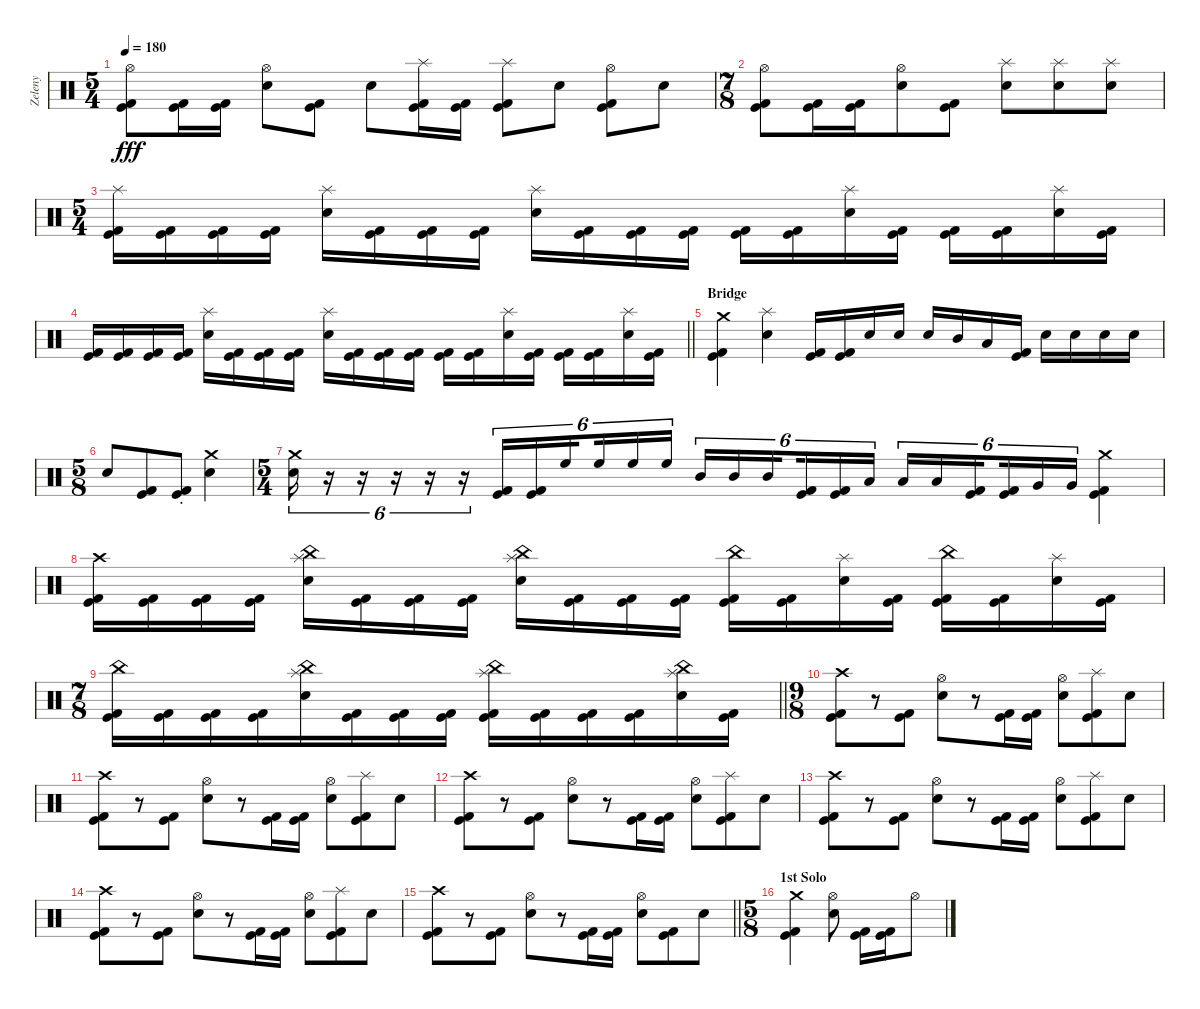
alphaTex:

\track ("Zeleny" "Zeleny") {instrument percussion}
\staff {score}
\articulation defaults
\ts (5 4)
\tempo 180
\clef neutral
\ks c
("Hi-Hat (open)" "Kick (hit)" "Kick (hit) 2").8{dy fff} ("Kick (hit)" "Kick (hit) 2").16 ("Kick (hit)" "Kick (hit) 2").16 ("Hi-Hat (open)" "Snare (hit) 2").8 ("Kick (hit)" "Kick (hit) 2").8 "Snare (hit) 2".8 ("Splash (hit)" "Kick (hit)" "Kick (hit) 2").16 ("Kick (hit)" "Kick (hit) 2").16 ("Splash (hit)" "Kick (hit)" "Kick (hit) 2").8 "Snare (hit) 2".8 ("Hi-Hat (open)" "Kick (hit)" "Kick (hit) 2").8 "Snare (hit) 2".8 |
\ts (7 8)
("Hi-Hat (open)" "Kick (hit)" "Kick (hit) 2").8 ("Kick (hit)" "Kick (hit) 2").16 ("Kick (hit)" "Kick (hit) 2").16 ("Hi-Hat (open)" "Snare (hit) 2").8 ("Kick (hit)" "Kick (hit) 2").8 ("Splash (hit)" "Snare (hit) 2").8 ("Splash (hit)" "Snare (hit) 2").8 ("Splash (hit)" "Snare (hit) 2").8 |
\ts (5 4)
("Splash (hit)" "Kick (hit)" "Kick (hit) 2").16 ("Kick (hit)" "Kick (hit) 2").16 ("Kick (hit)" "Kick (hit) 2").16 ("Kick (hit)" "Kick (hit) 2").16 ("Splash (hit)" "Snare (hit) 2").16 ("Kick (hit)" "Kick (hit) 2").16 ("Kick (hit)" "Kick (hit) 2").16 ("Kick (hit)" "Kick (hit) 2").16 ("Splash (hit)" "Snare (hit) 2").16 ("Kick (hit)" "Kick (hit) 2").16 ("Kick (hit)" "Kick (hit) 2").16 ("Kick (hit)" "Kick (hit) 2").16 ("Kick (hit)" "Kick (hit) 2").16 ("Kick (hit)" "Kick (hit) 2").16 ("Splash (hit)" "Snare (hit) 2").16 ("Kick (hit)" "Kick (hit) 2").16 ("Kick (hit)" "Kick (hit) 2").16 ("Kick (hit)" "Kick (hit) 2").16 ("Splash (hit)" "Snare (hit) 2").16 ("Kick (hit)" "Kick (hit) 2").16 |
\barLineRight lightlight
("Kick (hit)" "Kick (hit) 2").16 ("Kick (hit)" "Kick (hit) 2").16 ("Kick (hit)" "Kick (hit) 2").16 ("Kick (hit)" "Kick (hit) 2").16 ("Splash (hit)" "Snare (hit) 2").16 ("Kick (hit)" "Kick (hit) 2").16 ("Kick (hit)" "Kick (hit) 2").16 ("Kick (hit)" "Kick (hit) 2").16 ("Splash (hit)" "Snare (hit) 2").16 ("Kick (hit)" "Kick (hit) 2").16 ("Kick (hit)" "Kick (hit) 2").16 ("Kick (hit)" "Kick (hit) 2").16 ("Kick (hit)" "Kick (hit) 2").16 ("Kick (hit)" "Kick (hit) 2").16 ("Splash (hit)" "Snare (hit) 2").16 ("Kick (hit)" "Kick (hit) 2").16 ("Kick (hit)" "Kick (hit) 2").16 ("Kick (hit)" "Kick (hit) 2").16 ("Splash (hit)" "Snare (hit) 2").16 ("Kick (hit)" "Kick (hit) 2").16 |
\section ("" "Bridge")
("Crash medium (hit)" "Kick (hit)" "Kick (hit) 2").4 ("Splash (hit)" "Snare (hit) 2").4 ("Kick (hit)" "Kick (hit) 2").16 ("Kick (hit)" "Kick (hit) 2").16 "Snare (hit) 2".16 "Snare (hit) 2".16 "Snare (hit) 2".16 "Mid Tom (hit)".16 "Low Tom (hit)".16 ("Kick (hit)" "Kick (hit) 2").16 "Snare (hit) 2".16 "Snare (hit) 2".16 "Snare (hit) 2".16 "Snare (hit) 2".16 |
\ts (5 8)
"Snare (hit) 2".8 ("Kick (hit)" "Kick (hit) 2").8 ("Kick (hit)" "Kick (hit) 2"{st}).8 ("Crash medium (hit)" "Snare (hit) 2").4 |
\ts (5 4)
("Crash medium (hit)" "Snare (hit) 2").16{tu (6 4)} r.16{tu (6 4)} r.16{tu (6 4)} r.16{tu (6 4)} r.16{tu (6 4)} r.16{tu (6 4)} ("Kick (hit)" "Kick (hit) 2").16{tu (6 4)} ("Kick (hit)" "Kick (hit) 2").16{tu (6 4)} "High Floor Tom (hit)".16{tu (6 4) beam splitsecondary} "High Floor Tom (hit)".16{tu (6 4)} "High Floor Tom (hit)".16{tu (6 4)} "High Floor Tom (hit)".16{tu (6 4)} "Mid Tom (hit)".16{tu (6 4)} "Mid Tom (hit)".16{tu (6 4)} "Mid Tom (hit)".16{tu (6 4) beam splitsecondary} ("Kick (hit)" "Kick (hit) 2").16{tu (6 4)} ("Kick (hit)" "Kick (hit) 2").16{tu (6 4)} "Low Tom (hit)".16{tu (6 4)} "Low Tom (hit)".16{tu (6 4)} "Low Tom (hit)".16{tu (6 4)} ("Kick (hit)" "Kick (hit) 2").16{tu (6 4) beam splitsecondary} ("Kick (hit)" "Kick (hit) 2").16{tu (6 4)} "Very Low Tom (hit)".16{tu (6 4)} "Very Low Tom (hit)".16{tu (6 4)} ("Crash medium (hit)" "Kick (hit)" "Kick (hit) 2").4 |
("Crash high (hit)" "Kick (hit)" "Kick (hit) 2").16 ("Kick (hit)" "Kick (hit) 2").16 ("Kick (hit)" "Kick (hit) 2").16 ("Kick (hit)" "Kick (hit) 2").16 ("China (hit)" "Splash (hit)" "Snare (hit) 2").16 ("Kick (hit)" "Kick (hit) 2").16 ("Kick (hit)" "Kick (hit) 2").16 ("Kick (hit)" "Kick (hit) 2").16 ("China (hit)" "Splash (hit)" "Snare (hit) 2").16 ("Kick (hit)" "Kick (hit) 2").16 ("Kick (hit)" "Kick (hit) 2").16 ("Kick (hit)" "Kick (hit) 2").16 ("China (hit)" "Kick (hit)" "Kick (hit) 2").16 ("Kick (hit)" "Kick (hit) 2").16 ("Splash (hit)" "Snare (hit) 2").16 ("Kick (hit)" "Kick (hit) 2").16 ("China (hit)" "Kick (hit)" "Kick (hit) 2").16 ("Kick (hit)" "Kick (hit) 2").16 ("Splash (hit)" "Snare (hit) 2").16 ("Kick (hit)" "Kick (hit) 2").16 |
\ts (7 8)
\barLineRight lightlight
("China (hit)" "Kick (hit)" "Kick (hit) 2").16 ("Kick (hit)" "Kick (hit) 2").16 ("Kick (hit)" "Kick (hit) 2").16 ("Kick (hit)" "Kick (hit) 2").16 ("China (hit)" "Splash (hit)" "Snare (hit) 2").16 ("Kick (hit)" "Kick (hit) 2").16 ("Kick (hit)" "Kick (hit) 2").16 ("Kick (hit)" "Kick (hit) 2").16 ("China (hit)" "Splash (hit)" "Kick (hit)" "Kick (hit) 2").16 ("Kick (hit)" "Kick (hit) 2").16 ("Kick (hit)" "Kick (hit) 2").16 ("Kick (hit)" "Kick (hit) 2").16 ("China (hit)" "Splash (hit)" "Snare (hit) 2").16 ("Kick (hit)" "Kick (hit) 2").16 |
\ts (9 8)
\section ("" "")
("Crash high (hit)" "Kick (hit)" "Kick (hit) 2").8 r.8 ("Kick (hit)" "Kick (hit) 2").8 ("Hi-Hat (open)" "Snare (hit) 2").8 r.8 ("Kick (hit)" "Kick (hit) 2").16 ("Kick (hit)" "Kick (hit) 2").16 ("Hi-Hat (open)" "Snare (hit) 2").8 ("Splash (hit)" "Kick (hit)" "Kick (hit) 2").8 "Snare (hit) 2".8 |
("Crash high (hit)" "Kick (hit)" "Kick (hit) 2").8 r.8 ("Kick (hit)" "Kick (hit) 2").8 ("Hi-Hat (open)" "Snare (hit) 2").8 r.8 ("Kick (hit)" "Kick (hit) 2").16 ("Kick (hit)" "Kick (hit) 2").16 ("Hi-Hat (open)" "Snare (hit) 2").8 ("Splash (hit)" "Kick (hit)" "Kick (hit) 2").8 "Snare (hit) 2".8 |
("Crash high (hit)" "Kick (hit)" "Kick (hit) 2").8 r.8 ("Kick (hit)" "Kick (hit) 2").8 ("Hi-Hat (open)" "Snare (hit) 2").8 r.8 ("Kick (hit)" "Kick (hit) 2").16 ("Kick (hit)" "Kick (hit) 2").16 ("Hi-Hat (open)" "Snare (hit) 2").8 ("Splash (hit)" "Kick (hit)" "Kick (hit) 2").8 "Snare (hit) 2".8 |
("Crash high (hit)" "Kick (hit)" "Kick (hit) 2").8 r.8 ("Kick (hit)" "Kick (hit) 2").8 ("Hi-Hat (open)" "Snare (hit) 2").8 r.8 ("Kick (hit)" "Kick (hit) 2").16 ("Kick (hit)" "Kick (hit) 2").16 ("Hi-Hat (open)" "Snare (hit) 2").8 ("Splash (hit)" "Kick (hit)" "Kick (hit) 2").8 "Snare (hit) 2".8 |
("Crash high (hit)" "Kick (hit)" "Kick (hit) 2").8 r.8 ("Kick (hit)" "Kick (hit) 2").8 ("Hi-Hat (open)" "Snare (hit) 2").8 r.8 ("Kick (hit)" "Kick (hit) 2").16 ("Kick (hit)" "Kick (hit) 2").16 ("Hi-Hat (open)" "Snare (hit) 2").8 ("Splash (hit)" "Kick (hit)" "Kick (hit) 2").8 "Snare (hit) 2".8 |
\barLineRight lightlight
("Crash high (hit)" "Kick (hit)" "Kick (hit) 2").8 r.8 ("Kick (hit)" "Kick (hit) 2").8 ("Hi-Hat (open)" "Snare (hit) 2").8 r.8 ("Kick (hit)" "Kick (hit) 2").16 ("Kick (hit)" "Kick (hit) 2").16 ("Hi-Hat (open)" "Snare (hit) 2").8 ("Kick (hit)" "Kick (hit) 2").8 "Snare (hit) 2".8 |
\ts (5 8)
\section ("" "1st Solo")
("Crash medium (hit)" "Kick (hit)" "Kick (hit) 2").4 ("Hi-Hat (open)" "Snare (hit) 2").8 ("Kick (hit)" "Kick (hit) 2").16 ("Kick (hit)" "Kick (hit) 2").16 "Hi-Hat (open)".8
